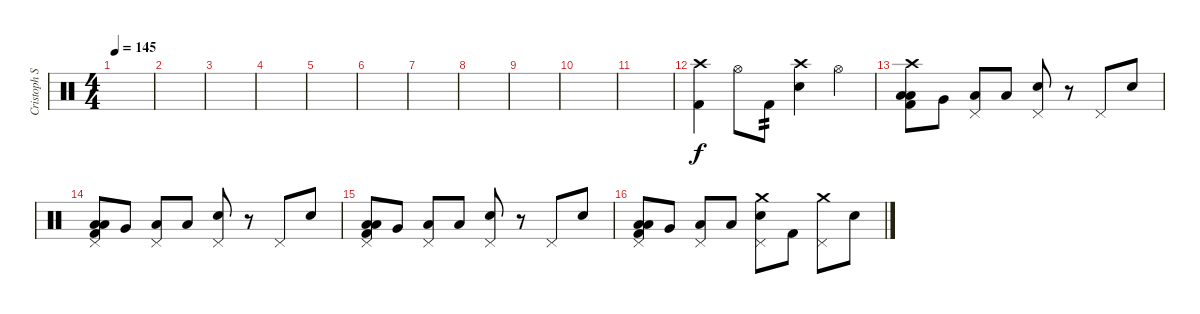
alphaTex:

\track ("Cristoph Schneider" "Cristoph S") {instrument percussion}
\staff {score}
\articulation defaults
\ts (4 4)
\tempo 145
\clef neutral
\ks c
|
|
|
|
|
|
|
|
|
|
|
("Crash high (hit)" "Kick (hit) 2").4 "Hi-Hat (open)".8 "Kick (hit) 2".8{tp 2} ("Crash high (hit)" "Electric Snare (hit)").4 "Hi-Hat (open)".4 |
("Crash high (hit)" "Low Floor Tom (hit)" "Low Floor Tom (hit)" "Kick (hit) 2").8 "Very Low Tom (hit)".8 ("Pedal Hi-Hat (hit)" "Low Floor Tom (hit)").8 "Low Floor Tom (hit)".8 ("Pedal Hi-Hat (hit)" "Electric Snare (hit)").8 r.8 "Pedal Hi-Hat (hit)".8 "Electric Snare (hit)".8 |
("Pedal Hi-Hat (hit)" "Low Floor Tom (hit)" "Low Floor Tom (hit)" "Kick (hit) 2").8 "Very Low Tom (hit)".8 ("Pedal Hi-Hat (hit)" "Low Floor Tom (hit)").8 "Low Floor Tom (hit)".8 ("Pedal Hi-Hat (hit)" "Electric Snare (hit)").8 r.8 "Pedal Hi-Hat (hit)".8 "Electric Snare (hit)".8 |
("Pedal Hi-Hat (hit)" "Low Floor Tom (hit)" "Low Floor Tom (hit)" "Kick (hit) 2").8 "Very Low Tom (hit)".8 ("Pedal Hi-Hat (hit)" "Low Floor Tom (hit)").8 "Low Floor Tom (hit)".8 ("Pedal Hi-Hat (hit)" "Electric Snare (hit)").8 r.8 "Pedal Hi-Hat (hit)".8 "Electric Snare (hit)".8 |
("Pedal Hi-Hat (hit)" "Low Floor Tom (hit)" "Low Floor Tom (hit)" "Kick (hit) 2").8 "Very Low Tom (hit)".8 ("Pedal Hi-Hat (hit)" "Low Floor Tom (hit)").8 "Low Floor Tom (hit)".8 ("Crash medium (hit)" "Pedal Hi-Hat (hit)" "Electric Snare (hit)").8 "Kick (hit) 2".8 ("Crash medium (hit)" "Pedal Hi-Hat (hit)").8 "Electric Snare (hit)".8
